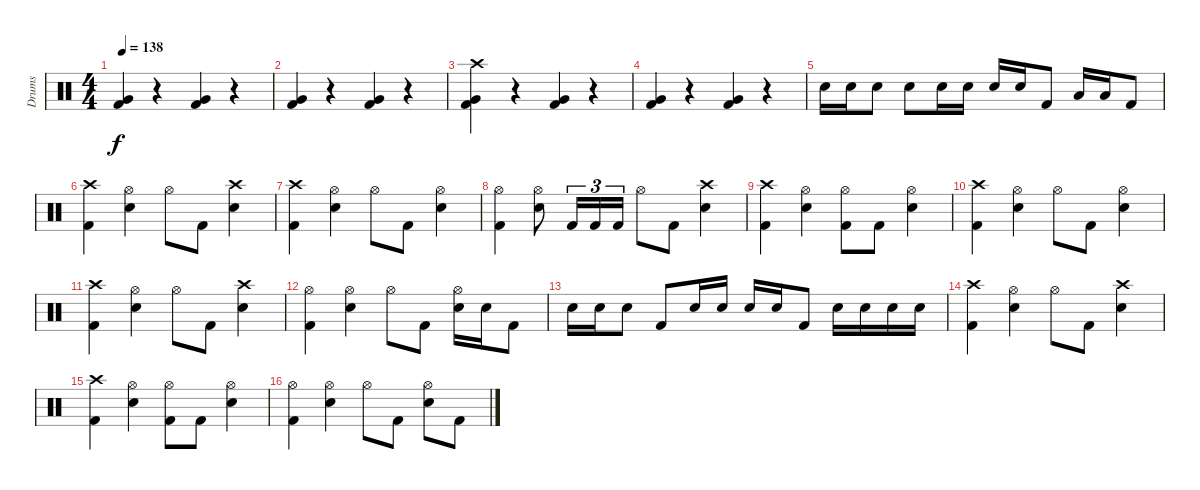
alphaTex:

\track ("Drums" "Drums") {instrument percussion}
\staff {score}
\articulation defaults
\ts (4 4)
\tempo 138
\clef neutral
\ks c
("Very Low Tom (hit)" "Kick (hit) 2").4{dy f} r.4 ("Very Low Tom (hit)" "Kick (hit) 2").4 r.4 |
("Very Low Tom (hit)" "Kick (hit) 2").4 r.4 ("Very Low Tom (hit)" "Kick (hit) 2").4 r.4 |
("Crash high (hit)" "Very Low Tom (hit)" "Kick (hit) 2").4 r.4 ("Very Low Tom (hit)" "Kick (hit) 2").4 r.4 |
("Very Low Tom (hit)" "Kick (hit) 2").4 r.4 ("Very Low Tom (hit)" "Kick (hit) 2").4 r.4 |
"Electric Snare (hit)".16 "Electric Snare (hit)".16 "Electric Snare (hit)".8 "Electric Snare (hit)".8 "Electric Snare (hit)".16 "Electric Snare (hit)".16 "Electric Snare (hit)".16 "Electric Snare (hit)".16 "Kick (hit) 2".8 "Low Tom (hit)".16 "Low Tom (hit)".16 "Kick (hit) 2".8 |
("Crash high (hit)" "Kick (hit) 2").4 ("Hi-Hat (open)" "Electric Snare (hit)").4 "Hi-Hat (open)".8 "Kick (hit) 2".8 ("Crash high (hit)" "Electric Snare (hit)").4 |
("Crash high (hit)" "Kick (hit) 2").4 ("Hi-Hat (open)" "Electric Snare (hit)").4 "Hi-Hat (open)".8 "Kick (hit) 2".8 ("Hi-Hat (open)" "Electric Snare (hit)").4 |
("Hi-Hat (open)" "Kick (hit) 2").4 ("Hi-Hat (open)" "Electric Snare (hit)").8 "Kick (hit) 2".16{tu (3 2)} "Kick (hit) 2".16{tu (3 2)} "Kick (hit) 2".16{tu (3 2)} "Hi-Hat (open)".8 "Kick (hit) 2".8 ("Crash high (hit)" "Electric Snare (hit)").4 |
("Crash high (hit)" "Kick (hit) 2").4 ("Hi-Hat (open)" "Electric Snare (hit)").4 ("Hi-Hat (open)" "Kick (hit) 2").8 "Kick (hit) 2".8 ("Hi-Hat (open)" "Electric Snare (hit)").4 |
("Crash high (hit)" "Kick (hit) 2").4 ("Hi-Hat (open)" "Electric Snare (hit)").4 "Hi-Hat (open)".8 "Kick (hit) 2".8 ("Hi-Hat (open)" "Electric Snare (hit)").4 |
("Crash high (hit)" "Kick (hit) 2").4 ("Hi-Hat (open)" "Electric Snare (hit)").4 "Hi-Hat (open)".8 "Kick (hit) 2".8 ("Crash high (hit)" "Electric Snare (hit)").4 |
("Hi-Hat (open)" "Kick (hit) 2").4 ("Hi-Hat (open)" "Electric Snare (hit)").4 "Hi-Hat (open)".8 "Kick (hit) 2".8 ("Hi-Hat (open)" "Electric Snare (hit)").16 "Electric Snare (hit)".16 "Kick (hit) 2".8 |
"Electric Snare (hit)".16 "Electric Snare (hit)".16 "Electric Snare (hit)".8 "Kick (hit) 2".8 "Electric Snare (hit)".16 "Electric Snare (hit)".16 "Electric Snare (hit)".16 "Electric Snare (hit)".16 "Kick (hit) 2".8 "Electric Snare (hit)".16 "Electric Snare (hit)".16 "Electric Snare (hit)".16 "Electric Snare (hit)".16 |
("Crash high (hit)" "Kick (hit) 2").4 ("Hi-Hat (open)" "Electric Snare (hit)").4 "Hi-Hat (open)".8 "Kick (hit) 2".8 ("Crash high (hit)" "Electric Snare (hit)").4 |
("Crash high (hit)" "Kick (hit) 2").4 ("Hi-Hat (open)" "Electric Snare (hit)").4 ("Hi-Hat (open)" "Kick (hit) 2").8 "Kick (hit) 2".8 ("Hi-Hat (open)" "Electric Snare (hit)").4 |
("Hi-Hat (open)" "Kick (hit) 2").4 ("Hi-Hat (open)" "Electric Snare (hit)").4 "Hi-Hat (open)".8 "Kick (hit) 2".8 ("Hi-Hat (open)" "Electric Snare (hit)").8 "Kick (hit) 2".8
